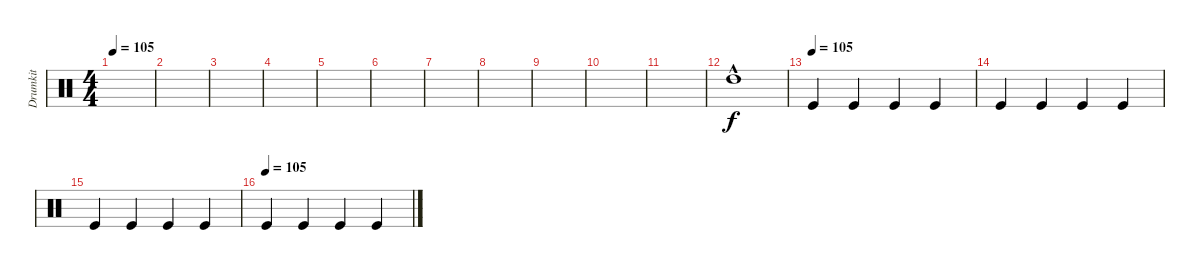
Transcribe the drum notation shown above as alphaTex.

\track ("Drumkit" "Drumkit") {instrument percussion}
\staff {score}
\articulation defaults
\ts (4 4)
\tempo 105
\clef neutral
\ks c
|
|
|
|
|
\ks aminor
|
|
\ks c
|
|
\ks aminor
|
|
\ks c "High Tom (hit)"{hac}.1
|
\tempo (105)
"Kick (hit)".4 "Kick (hit)".4 "Kick (hit)".4 "Kick (hit)".4 |
\ks aminor "Kick (hit)".4 "Kick (hit)".4 "Kick (hit)".4 "Kick (hit)".4
|
"Kick (hit)".4 "Kick (hit)".4 "Kick (hit)".4 "Kick (hit)".4 |
\tempo 105
\ks c "Kick (hit)".4 "Kick (hit)".4 "Kick (hit)".4 "Kick (hit)".4
